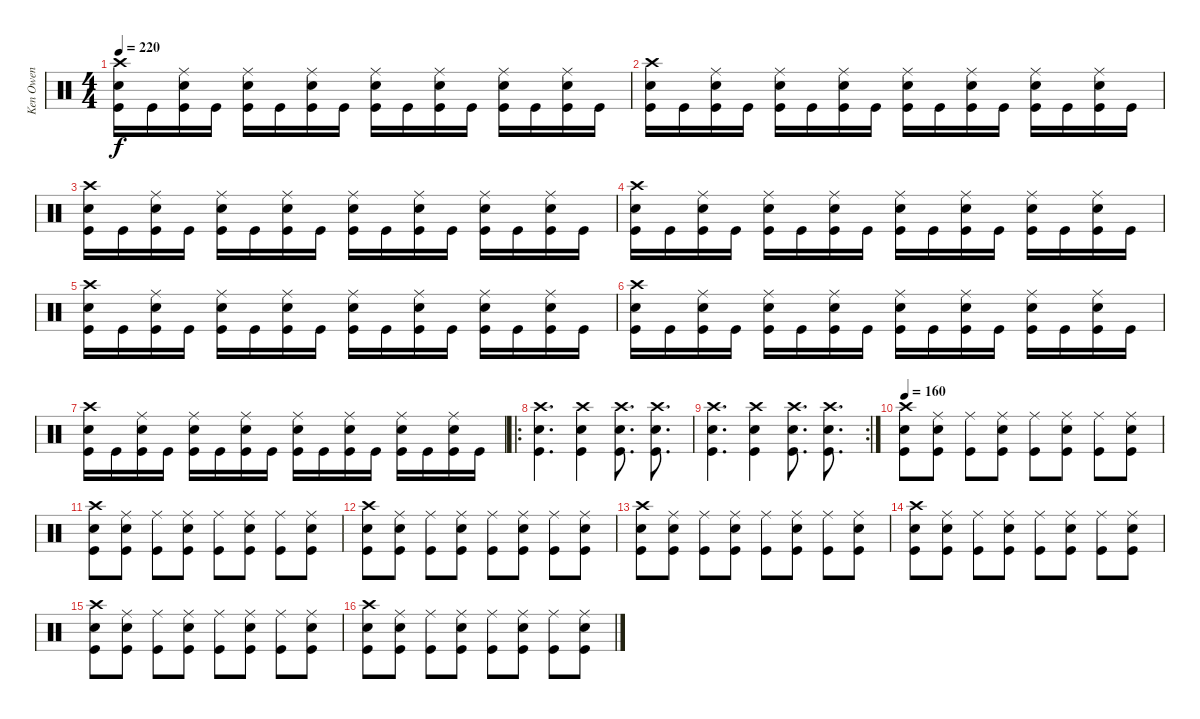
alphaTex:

\track ("Ken Owen" "Ken Owen") {instrument percussion}
\staff {score}
\articulation defaults
\ts (4 4)
\tempo 220
\clef neutral
\ks c
("Crash high (hit)" "Snare (hit) 2" "Kick (hit)").16{dy f} "Kick (hit)".16 ("Ride (middle)" "Snare (hit) 2" "Kick (hit)").16 "Kick (hit)".16 ("Ride (middle)" "Snare (hit) 2" "Kick (hit)").16 "Kick (hit)".16 ("Ride (middle)" "Snare (hit) 2" "Kick (hit)").16 "Kick (hit)".16 ("Ride (middle)" "Snare (hit) 2" "Kick (hit)").16 "Kick (hit)".16 ("Ride (middle)" "Snare (hit) 2" "Kick (hit)").16 "Kick (hit)".16 ("Ride (middle)" "Snare (hit) 2" "Kick (hit)").16 "Kick (hit)".16 ("Ride (middle)" "Snare (hit) 2" "Kick (hit)").16 "Kick (hit)".16 |
("Crash high (hit)" "Snare (hit) 2" "Kick (hit)").16 "Kick (hit)".16 ("Ride (middle)" "Snare (hit) 2" "Kick (hit)").16 "Kick (hit)".16 ("Ride (middle)" "Snare (hit) 2" "Kick (hit)").16 "Kick (hit)".16 ("Ride (middle)" "Snare (hit) 2" "Kick (hit)").16 "Kick (hit)".16 ("Ride (middle)" "Snare (hit) 2" "Kick (hit)").16 "Kick (hit)".16 ("Ride (middle)" "Snare (hit) 2" "Kick (hit)").16 "Kick (hit)".16 ("Ride (middle)" "Snare (hit) 2" "Kick (hit)").16 "Kick (hit)".16 ("Ride (middle)" "Snare (hit) 2" "Kick (hit)").16 "Kick (hit)".16 |
("Crash high (hit)" "Snare (hit) 2" "Kick (hit)").16 "Kick (hit)".16 ("Ride (middle)" "Snare (hit) 2" "Kick (hit)").16 "Kick (hit)".16 ("Ride (middle)" "Snare (hit) 2" "Kick (hit)").16 "Kick (hit)".16 ("Ride (middle)" "Snare (hit) 2" "Kick (hit)").16 "Kick (hit)".16 ("Ride (middle)" "Snare (hit) 2" "Kick (hit)").16 "Kick (hit)".16 ("Ride (middle)" "Snare (hit) 2" "Kick (hit)").16 "Kick (hit)".16 ("Ride (middle)" "Snare (hit) 2" "Kick (hit)").16 "Kick (hit)".16 ("Ride (middle)" "Snare (hit) 2" "Kick (hit)").16 "Kick (hit)".16 |
("Crash high (hit)" "Snare (hit) 2" "Kick (hit)").16 "Kick (hit)".16 ("Ride (middle)" "Snare (hit) 2" "Kick (hit)").16 "Kick (hit)".16 ("Ride (middle)" "Snare (hit) 2" "Kick (hit)").16 "Kick (hit)".16 ("Ride (middle)" "Snare (hit) 2" "Kick (hit)").16 "Kick (hit)".16 ("Ride (middle)" "Snare (hit) 2" "Kick (hit)").16 "Kick (hit)".16 ("Ride (middle)" "Snare (hit) 2" "Kick (hit)").16 "Kick (hit)".16 ("Ride (middle)" "Snare (hit) 2" "Kick (hit)").16 "Kick (hit)".16 ("Ride (middle)" "Snare (hit) 2" "Kick (hit)").16 "Kick (hit)".16 |
("Crash high (hit)" "Snare (hit) 2" "Kick (hit)").16 "Kick (hit)".16 ("Ride (middle)" "Snare (hit) 2" "Kick (hit)").16 "Kick (hit)".16 ("Ride (middle)" "Snare (hit) 2" "Kick (hit)").16 "Kick (hit)".16 ("Ride (middle)" "Snare (hit) 2" "Kick (hit)").16 "Kick (hit)".16 ("Ride (middle)" "Snare (hit) 2" "Kick (hit)").16 "Kick (hit)".16 ("Ride (middle)" "Snare (hit) 2" "Kick (hit)").16 "Kick (hit)".16 ("Ride (middle)" "Snare (hit) 2" "Kick (hit)").16 "Kick (hit)".16 ("Ride (middle)" "Snare (hit) 2" "Kick (hit)").16 "Kick (hit)".16 |
("Crash high (hit)" "Snare (hit) 2" "Kick (hit)").16 "Kick (hit)".16 ("Ride (middle)" "Snare (hit) 2" "Kick (hit)").16 "Kick (hit)".16 ("Ride (middle)" "Snare (hit) 2" "Kick (hit)").16 "Kick (hit)".16 ("Ride (middle)" "Snare (hit) 2" "Kick (hit)").16 "Kick (hit)".16 ("Ride (middle)" "Snare (hit) 2" "Kick (hit)").16 "Kick (hit)".16 ("Ride (middle)" "Snare (hit) 2" "Kick (hit)").16 "Kick (hit)".16 ("Ride (middle)" "Snare (hit) 2" "Kick (hit)").16 "Kick (hit)".16 ("Ride (middle)" "Snare (hit) 2" "Kick (hit)").16 "Kick (hit)".16 |
("Crash high (hit)" "Snare (hit) 2" "Kick (hit)").16 "Kick (hit)".16 ("Ride (middle)" "Snare (hit) 2" "Kick (hit)").16 "Kick (hit)".16 ("Ride (middle)" "Snare (hit) 2" "Kick (hit)").16 "Kick (hit)".16 ("Ride (middle)" "Snare (hit) 2" "Kick (hit)").16 "Kick (hit)".16 ("Ride (middle)" "Snare (hit) 2" "Kick (hit)").16 "Kick (hit)".16 ("Ride (middle)" "Snare (hit) 2" "Kick (hit)").16 "Kick (hit)".16 ("Ride (middle)" "Snare (hit) 2" "Kick (hit)").16 "Kick (hit)".16 ("Ride (middle)" "Snare (hit) 2" "Kick (hit)").16 "Kick (hit)".16 |
\ro
("Crash high (hit)" "Snare (hit) 2" "Kick (hit)").4{d} ("Crash high (hit)" "Snare (hit) 2" "Kick (hit)").4 ("Crash high (hit)" "Snare (hit) 2" "Kick (hit)").8{d} ("Crash high (hit)" "Snare (hit) 2" "Kick (hit)").8{d} |
\rc 2
("Crash high (hit)" "Snare (hit) 2" "Kick (hit)").4{d} ("Crash high (hit)" "Snare (hit) 2" "Kick (hit)").4 ("Crash high (hit)" "Snare (hit) 2" "Kick (hit)").8{d} ("Crash high (hit)" "Snare (hit) 2" "Kick (hit)").8{d} |
\tempo 160
("Crash high (hit)" "Snare (hit) 2" "Kick (hit)").8 ("Ride (middle)" "Snare (hit) 2" "Kick (hit)").8 ("Ride (middle)" "Kick (hit)").8 ("Ride (middle)" "Snare (hit) 2" "Kick (hit)").8 ("Ride (middle)" "Kick (hit)").8 ("Ride (middle)" "Snare (hit) 2" "Kick (hit)").8 ("Ride (middle)" "Kick (hit)").8 ("Ride (middle)" "Snare (hit) 2" "Kick (hit)").8 |
("Crash high (hit)" "Snare (hit) 2" "Kick (hit)").8 ("Ride (middle)" "Snare (hit) 2" "Kick (hit)").8 ("Ride (middle)" "Kick (hit)").8 ("Ride (middle)" "Snare (hit) 2" "Kick (hit)").8 ("Ride (middle)" "Kick (hit)").8 ("Ride (middle)" "Snare (hit) 2" "Kick (hit)").8 ("Ride (middle)" "Kick (hit)").8 ("Ride (middle)" "Snare (hit) 2" "Kick (hit)").8 |
("Crash high (hit)" "Snare (hit) 2" "Kick (hit)").8 ("Ride (middle)" "Snare (hit) 2" "Kick (hit)").8 ("Ride (middle)" "Kick (hit)").8 ("Ride (middle)" "Snare (hit) 2" "Kick (hit)").8 ("Ride (middle)" "Kick (hit)").8 ("Ride (middle)" "Snare (hit) 2" "Kick (hit)").8 ("Ride (middle)" "Kick (hit)").8 ("Ride (middle)" "Snare (hit) 2" "Kick (hit)").8 |
("Crash high (hit)" "Snare (hit) 2" "Kick (hit)").8 ("Ride (middle)" "Snare (hit) 2" "Kick (hit)").8 ("Ride (middle)" "Kick (hit)").8 ("Ride (middle)" "Snare (hit) 2" "Kick (hit)").8 ("Ride (middle)" "Kick (hit)").8 ("Ride (middle)" "Snare (hit) 2" "Kick (hit)").8 ("Ride (middle)" "Kick (hit)").8 ("Ride (middle)" "Snare (hit) 2" "Kick (hit)").8 |
("Crash high (hit)" "Snare (hit) 2" "Kick (hit)").8 ("Ride (middle)" "Snare (hit) 2" "Kick (hit)").8 ("Ride (middle)" "Kick (hit)").8 ("Ride (middle)" "Snare (hit) 2" "Kick (hit)").8 ("Ride (middle)" "Kick (hit)").8 ("Ride (middle)" "Snare (hit) 2" "Kick (hit)").8 ("Ride (middle)" "Kick (hit)").8 ("Ride (middle)" "Snare (hit) 2" "Kick (hit)").8 |
("Crash high (hit)" "Snare (hit) 2" "Kick (hit)").8 ("Ride (middle)" "Snare (hit) 2" "Kick (hit)").8 ("Ride (middle)" "Kick (hit)").8 ("Ride (middle)" "Snare (hit) 2" "Kick (hit)").8 ("Ride (middle)" "Kick (hit)").8 ("Ride (middle)" "Snare (hit) 2" "Kick (hit)").8 ("Ride (middle)" "Kick (hit)").8 ("Ride (middle)" "Snare (hit) 2" "Kick (hit)").8 |
("Crash high (hit)" "Snare (hit) 2" "Kick (hit)").8 ("Ride (middle)" "Snare (hit) 2" "Kick (hit)").8 ("Ride (middle)" "Kick (hit)").8 ("Ride (middle)" "Snare (hit) 2" "Kick (hit)").8 ("Ride (middle)" "Kick (hit)").8 ("Ride (middle)" "Snare (hit) 2" "Kick (hit)").8 ("Ride (middle)" "Kick (hit)").8 ("Ride (middle)" "Snare (hit) 2" "Kick (hit)").8
